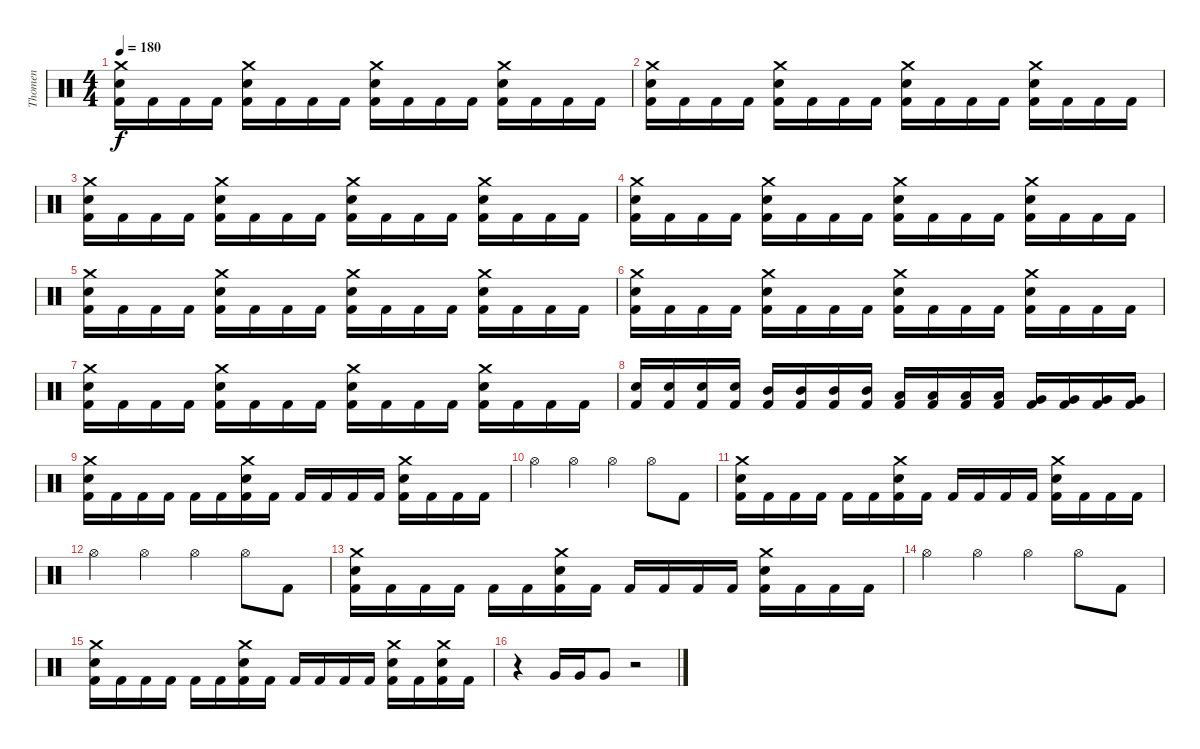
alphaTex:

\track ("Thomen" "Thomen") {instrument percussion}
\staff {score}
\articulation defaults
\ts (4 4)
\tempo 180
\clef neutral
\ks c
("Crash medium (hit)" "Electric Snare (hit)" "Kick (hit) 2").16{dy f} "Kick (hit) 2".16 "Kick (hit) 2".16 "Kick (hit) 2".16 ("Crash medium (hit)" "Electric Snare (hit)" "Kick (hit) 2").16 "Kick (hit) 2".16 "Kick (hit) 2".16 "Kick (hit) 2".16 ("Crash medium (hit)" "Electric Snare (hit)" "Kick (hit) 2").16 "Kick (hit) 2".16 "Kick (hit) 2".16 "Kick (hit) 2".16 ("Crash medium (hit)" "Electric Snare (hit)" "Kick (hit) 2").16 "Kick (hit) 2".16 "Kick (hit) 2".16 "Kick (hit) 2".16 |
("Crash medium (hit)" "Electric Snare (hit)" "Kick (hit) 2").16 "Kick (hit) 2".16 "Kick (hit) 2".16 "Kick (hit) 2".16 ("Crash medium (hit)" "Electric Snare (hit)" "Kick (hit) 2").16 "Kick (hit) 2".16 "Kick (hit) 2".16 "Kick (hit) 2".16 ("Crash medium (hit)" "Electric Snare (hit)" "Kick (hit) 2").16 "Kick (hit) 2".16 "Kick (hit) 2".16 "Kick (hit) 2".16 ("Crash medium (hit)" "Electric Snare (hit)" "Kick (hit) 2").16 "Kick (hit) 2".16 "Kick (hit) 2".16 "Kick (hit) 2".16 |
("Crash medium (hit)" "Electric Snare (hit)" "Kick (hit) 2").16 "Kick (hit) 2".16 "Kick (hit) 2".16 "Kick (hit) 2".16 ("Crash medium (hit)" "Electric Snare (hit)" "Kick (hit) 2").16 "Kick (hit) 2".16 "Kick (hit) 2".16 "Kick (hit) 2".16 ("Crash medium (hit)" "Electric Snare (hit)" "Kick (hit) 2").16 "Kick (hit) 2".16 "Kick (hit) 2".16 "Kick (hit) 2".16 ("Crash medium (hit)" "Electric Snare (hit)" "Kick (hit) 2").16 "Kick (hit) 2".16 "Kick (hit) 2".16 "Kick (hit) 2".16 |
("Crash medium (hit)" "Electric Snare (hit)" "Kick (hit) 2").16 "Kick (hit) 2".16 "Kick (hit) 2".16 "Kick (hit) 2".16 ("Crash medium (hit)" "Electric Snare (hit)" "Kick (hit) 2").16 "Kick (hit) 2".16 "Kick (hit) 2".16 "Kick (hit) 2".16 ("Crash medium (hit)" "Electric Snare (hit)" "Kick (hit) 2").16 "Kick (hit) 2".16 "Kick (hit) 2".16 "Kick (hit) 2".16 ("Crash medium (hit)" "Electric Snare (hit)" "Kick (hit) 2").16 "Kick (hit) 2".16 "Kick (hit) 2".16 "Kick (hit) 2".16 |
("Crash medium (hit)" "Electric Snare (hit)" "Kick (hit) 2").16 "Kick (hit) 2".16 "Kick (hit) 2".16 "Kick (hit) 2".16 ("Crash medium (hit)" "Electric Snare (hit)" "Kick (hit) 2").16 "Kick (hit) 2".16 "Kick (hit) 2".16 "Kick (hit) 2".16 ("Crash medium (hit)" "Electric Snare (hit)" "Kick (hit) 2").16 "Kick (hit) 2".16 "Kick (hit) 2".16 "Kick (hit) 2".16 ("Crash medium (hit)" "Electric Snare (hit)" "Kick (hit) 2").16 "Kick (hit) 2".16 "Kick (hit) 2".16 "Kick (hit) 2".16 |
("Crash medium (hit)" "Electric Snare (hit)" "Kick (hit) 2").16 "Kick (hit) 2".16 "Kick (hit) 2".16 "Kick (hit) 2".16 ("Crash medium (hit)" "Electric Snare (hit)" "Kick (hit) 2").16 "Kick (hit) 2".16 "Kick (hit) 2".16 "Kick (hit) 2".16 ("Crash medium (hit)" "Electric Snare (hit)" "Kick (hit) 2").16 "Kick (hit) 2".16 "Kick (hit) 2".16 "Kick (hit) 2".16 ("Crash medium (hit)" "Electric Snare (hit)" "Kick (hit) 2").16 "Kick (hit) 2".16 "Kick (hit) 2".16 "Kick (hit) 2".16 |
("Crash medium (hit)" "Electric Snare (hit)" "Kick (hit) 2").16 "Kick (hit) 2".16 "Kick (hit) 2".16 "Kick (hit) 2".16 ("Crash medium (hit)" "Electric Snare (hit)" "Kick (hit) 2").16 "Kick (hit) 2".16 "Kick (hit) 2".16 "Kick (hit) 2".16 ("Crash medium (hit)" "Electric Snare (hit)" "Kick (hit) 2").16 "Kick (hit) 2".16 "Kick (hit) 2".16 "Kick (hit) 2".16 ("Crash medium (hit)" "Electric Snare (hit)" "Kick (hit) 2").16 "Kick (hit) 2".16 "Kick (hit) 2".16 "Kick (hit) 2".16 |
("Electric Snare (hit)" "Kick (hit) 2").16 ("Electric Snare (hit)" "Kick (hit) 2").16 ("Electric Snare (hit)" "Kick (hit) 2").16 ("Electric Snare (hit)" "Kick (hit) 2").16 ("Mid Tom (hit)" "Kick (hit) 2").16 ("Mid Tom (hit)" "Kick (hit) 2").16 ("Mid Tom (hit)" "Kick (hit) 2").16 ("Mid Tom (hit)" "Kick (hit) 2").16 ("Low Tom (hit)" "Kick (hit) 2").16 ("Low Tom (hit)" "Kick (hit) 2").16 ("Low Tom (hit)" "Kick (hit) 2").16 ("Low Tom (hit)" "Kick (hit) 2").16 ("Very Low Tom (hit)" "Kick (hit) 2").16 ("Very Low Tom (hit)" "Kick (hit) 2").16 ("Very Low Tom (hit)" "Kick (hit) 2").16 ("Very Low Tom (hit)" "Kick (hit) 2").16 |
("Crash medium (hit)" "Electric Snare (hit)" "Kick (hit) 2").16 "Kick (hit) 2".16 "Kick (hit) 2".16 "Kick (hit) 2".16 "Kick (hit) 2".16 "Kick (hit) 2".16 ("Crash medium (hit)" "Electric Snare (hit)" "Kick (hit) 2").16 "Kick (hit) 2".16 "Kick (hit) 2".16 "Kick (hit) 2".16 "Kick (hit) 2".16 "Kick (hit) 2".16 ("Crash medium (hit)" "Electric Snare (hit)" "Kick (hit) 2").16 "Kick (hit) 2".16 "Kick (hit) 2".16 "Kick (hit) 2".16 |
"Hi-Hat (open)".4 "Hi-Hat (open)".4 "Hi-Hat (open)".4 "Hi-Hat (open)".8 "Kick (hit) 2".8 |
("Crash medium (hit)" "Electric Snare (hit)" "Kick (hit) 2").16 "Kick (hit) 2".16 "Kick (hit) 2".16 "Kick (hit) 2".16 "Kick (hit) 2".16 "Kick (hit) 2".16 ("Crash medium (hit)" "Electric Snare (hit)" "Kick (hit) 2").16 "Kick (hit) 2".16 "Kick (hit) 2".16 "Kick (hit) 2".16 "Kick (hit) 2".16 "Kick (hit) 2".16 ("Crash medium (hit)" "Electric Snare (hit)" "Kick (hit) 2").16 "Kick (hit) 2".16 "Kick (hit) 2".16 "Kick (hit) 2".16 |
"Hi-Hat (open)".4 "Hi-Hat (open)".4 "Hi-Hat (open)".4 "Hi-Hat (open)".8 "Kick (hit) 2".8 |
("Crash medium (hit)" "Electric Snare (hit)" "Kick (hit) 2").16 "Kick (hit) 2".16 "Kick (hit) 2".16 "Kick (hit) 2".16 "Kick (hit) 2".16 "Kick (hit) 2".16 ("Crash medium (hit)" "Electric Snare (hit)" "Kick (hit) 2").16 "Kick (hit) 2".16 "Kick (hit) 2".16 "Kick (hit) 2".16 "Kick (hit) 2".16 "Kick (hit) 2".16 ("Crash medium (hit)" "Electric Snare (hit)" "Kick (hit) 2").16 "Kick (hit) 2".16 "Kick (hit) 2".16 "Kick (hit) 2".16 |
"Hi-Hat (open)".4 "Hi-Hat (open)".4 "Hi-Hat (open)".4 "Hi-Hat (open)".8 "Kick (hit) 2".8 |
("Crash medium (hit)" "Electric Snare (hit)" "Kick (hit) 2").16 "Kick (hit) 2".16 "Kick (hit) 2".16 "Kick (hit) 2".16 "Kick (hit) 2".16 "Kick (hit) 2".16 ("Crash medium (hit)" "Electric Snare (hit)" "Kick (hit) 2").16 "Kick (hit) 2".16 "Kick (hit) 2".16 "Kick (hit) 2".16 "Kick (hit) 2".16 "Kick (hit) 2".16 ("Crash medium (hit)" "Electric Snare (hit)" "Kick (hit) 2").16 "Kick (hit) 2".16 ("Crash medium (hit)" "Electric Snare (hit)" "Kick (hit) 2").16 "Kick (hit) 2".16 |
r.4 "Very Low Tom (hit)".16 "Very Low Tom (hit)".16 "Very Low Tom (hit)".8 r.2
